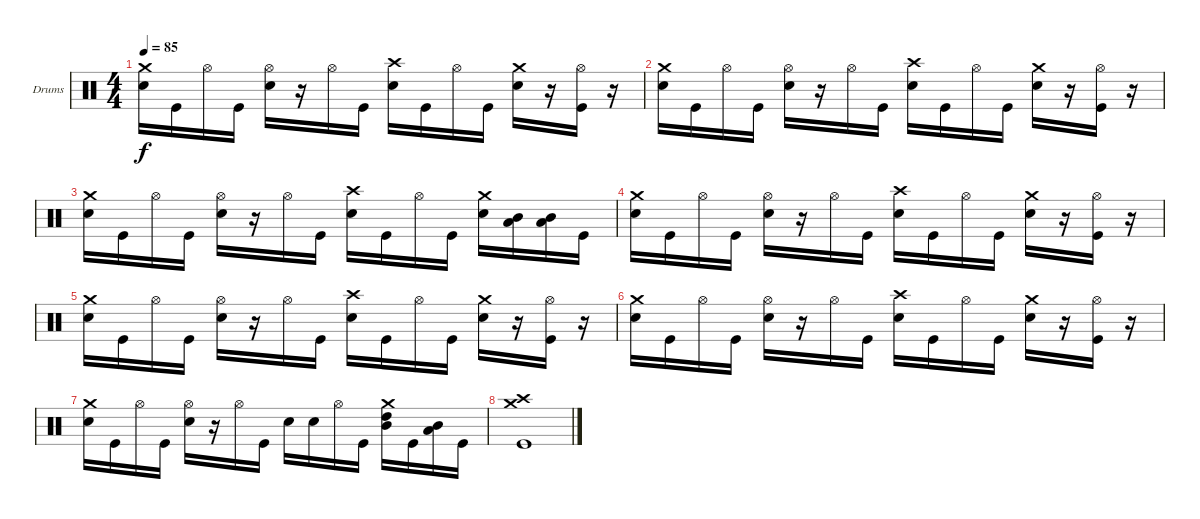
\bracketExtendMode groupsimilarinstruments
\firstSystemTrackNameOrientation horizontal
\otherSystemsTrackNameOrientation horizontal
\track ("Drumkit" "Drums") {instrument percussion}
\staff {score}
\articulation defaults
\ts (4 4)
\tempo 85
\clef neutral
\ks c
("Snare (hit) 2" "Crash medium (hit)").16{dy f} "Kick (hit)".16 "Hi-Hat (open)".16 "Kick (hit)".16 ("Snare (hit) 2" "Hi-Hat (open)").16 r.16 "Hi-Hat (open)".16 "Kick (hit)".16 ("Snare (hit) 2" "Crash high (hit)").16 "Kick (hit)".16 "Hi-Hat (open)".16 "Kick (hit)".16 ("Snare (hit) 2" "Crash medium (hit)").16 r.16 ("Kick (hit)" "Hi-Hat (open)").16 r.16 |
("Snare (hit) 2" "Crash medium (hit)").16 "Kick (hit)".16 "Hi-Hat (open)".16 "Kick (hit)".16 ("Snare (hit) 2" "Hi-Hat (open)").16 r.16 "Hi-Hat (open)".16 "Kick (hit)".16 ("Snare (hit) 2" "Crash high (hit)").16 "Kick (hit)".16 "Hi-Hat (open)".16 "Kick (hit)".16 ("Snare (hit) 2" "Crash medium (hit)").16 r.16 ("Kick (hit)" "Hi-Hat (open)").16 r.16 |
("Snare (hit) 2" "Crash medium (hit)").16 "Kick (hit)".16 "Hi-Hat (open)".16 "Kick (hit)".16 ("Snare (hit) 2" "Hi-Hat (open)").16 r.16 "Hi-Hat (open)".16 "Kick (hit)".16 ("Snare (hit) 2" "Crash high (hit)").16 "Kick (hit)".16 "Hi-Hat (open)".16 "Kick (hit)".16 ("Snare (hit) 2" "Crash medium (hit)").16 ("Low Tom (hit)" "Mid Tom (hit)").16 ("Low Tom (hit)" "Mid Tom (hit)").16 "Kick (hit)".16 |
("Snare (hit) 2" "Crash medium (hit)").16 "Kick (hit)".16 "Hi-Hat (open)".16 "Kick (hit)".16 ("Snare (hit) 2" "Hi-Hat (open)").16 r.16 "Hi-Hat (open)".16 "Kick (hit)".16 ("Snare (hit) 2" "Crash high (hit)").16 "Kick (hit)".16 "Hi-Hat (open)".16 "Kick (hit)".16 ("Snare (hit) 2" "Crash medium (hit)").16 r.16 ("Kick (hit)" "Hi-Hat (open)").16 r.16 |
("Snare (hit) 2" "Crash medium (hit)").16 "Kick (hit)".16 "Hi-Hat (open)".16 "Kick (hit)".16 ("Snare (hit) 2" "Hi-Hat (open)").16 r.16 "Hi-Hat (open)".16 "Kick (hit)".16 ("Snare (hit) 2" "Crash high (hit)").16 "Kick (hit)".16 "Hi-Hat (open)".16 "Kick (hit)".16 ("Snare (hit) 2" "Crash medium (hit)").16 r.16 ("Kick (hit)" "Hi-Hat (open)").16 r.16 |
("Snare (hit) 2" "Crash medium (hit)").16 "Kick (hit)".16 "Hi-Hat (open)".16 "Kick (hit)".16 ("Snare (hit) 2" "Hi-Hat (open)").16 r.16 "Hi-Hat (open)".16 "Kick (hit)".16 ("Snare (hit) 2" "Crash high (hit)").16 "Kick (hit)".16 "Hi-Hat (open)".16 "Kick (hit)".16 ("Snare (hit) 2" "Crash medium (hit)").16 r.16 ("Kick (hit)" "Hi-Hat (open)").16 r.16 |
("Snare (hit) 2" "Crash medium (hit)").16 "Kick (hit)".16 "Hi-Hat (open)".16 "Kick (hit)".16 ("Snare (hit) 2" "Hi-Hat (open)").16 r.16 "Hi-Hat (open)".16 "Kick (hit)".16 "Snare (hit) 2".16 "Snare (hit) 2".16 "Hi-Hat (open)".16 "Kick (hit)".16 ("High Tom (hit)" "Mid Tom (hit)" "Crash medium (hit)").16 "Kick (hit)".16 ("Low Tom (hit)" "Mid Tom (hit)").16 "Kick (hit)".16 |
("Kick (hit)" "Crash high (hit)" "Crash medium (hit)").1
